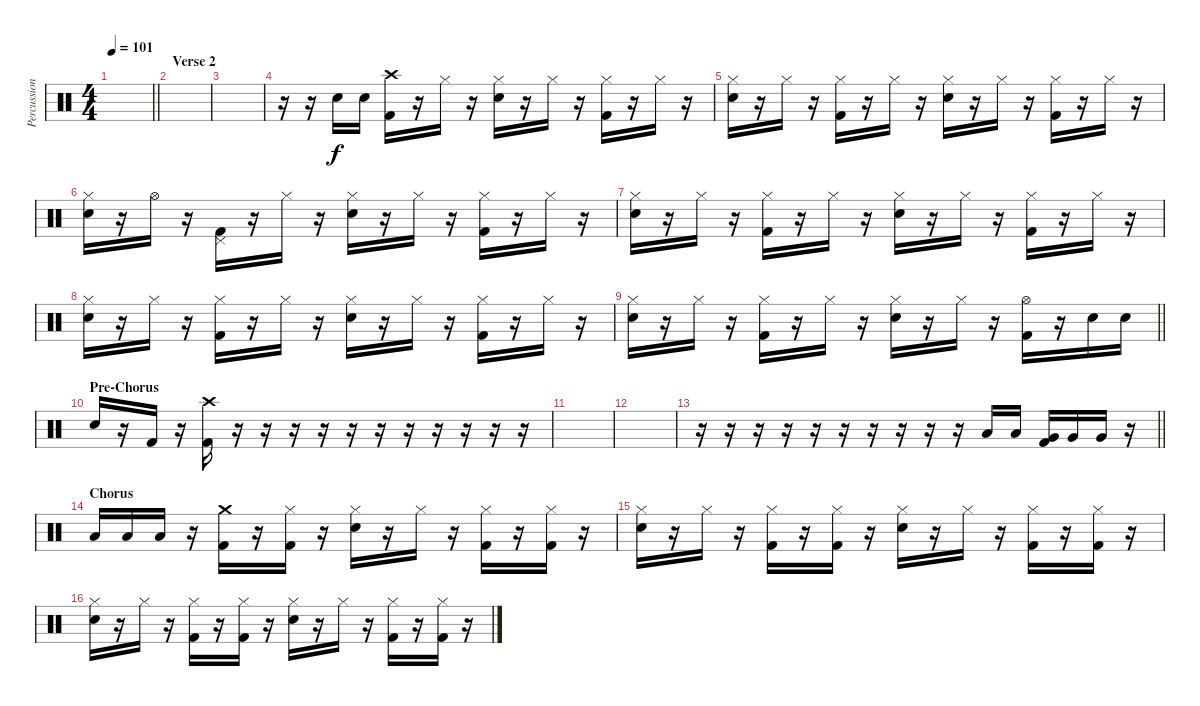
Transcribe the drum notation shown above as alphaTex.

\track ("Percussion (Chris)" "Percussion") {instrument percussion}
\staff {score}
\articulation defaults
\ts (4 4)
\tempo 101
\clef neutral
\barLineRight lightlight
\ks c
|
\section ("" "Verse 2")
|
|
r.16 r.16 "Snare (hit) 2".16 "Snare (hit) 2".16 ("Crash high (hit)" "Kick (hit) 2").16 r.16 "Hi-Hat (closed)".16 r.16 ("Hi-Hat (closed)" "Snare (hit) 2").16 r.16 "Hi-Hat (closed)".16 r.16 ("Hi-Hat (closed)" "Kick (hit) 2").16 r.16 "Hi-Hat (closed)".16 r.16 |
("Hi-Hat (closed)" "Snare (hit) 2").16 r.16 "Hi-Hat (closed)".16 r.16 ("Hi-Hat (closed)" "Kick (hit) 2").16 r.16 "Hi-Hat (closed)".16 r.16 ("Hi-Hat (closed)" "Snare (hit) 2").16 r.16 "Hi-Hat (closed)".16 r.16 ("Hi-Hat (closed)" "Kick (hit) 2").16 r.16 "Hi-Hat (closed)".16 r.16 |
("Hi-Hat (closed)" "Snare (hit) 2").16 r.16 "Hi-Hat (open)".16 r.16 ("Pedal Hi-Hat (hit)" "Kick (hit) 2").16 r.16 "Hi-Hat (closed)".16 r.16 ("Hi-Hat (closed)" "Snare (hit) 2").16 r.16 "Hi-Hat (closed)".16 r.16 ("Hi-Hat (closed)" "Kick (hit) 2").16 r.16 "Hi-Hat (closed)".16 r.16 |
("Hi-Hat (closed)" "Snare (hit) 2").16 r.16 "Hi-Hat (closed)".16 r.16 ("Hi-Hat (closed)" "Kick (hit) 2").16 r.16 "Hi-Hat (closed)".16 r.16 ("Hi-Hat (closed)" "Snare (hit) 2").16 r.16 "Hi-Hat (closed)".16 r.16 ("Hi-Hat (closed)" "Kick (hit) 2").16 r.16 "Hi-Hat (closed)".16 r.16 |
("Hi-Hat (closed)" "Snare (hit) 2").16 r.16 "Hi-Hat (closed)".16 r.16 ("Hi-Hat (closed)" "Kick (hit) 2").16 r.16 "Hi-Hat (closed)".16 r.16 ("Hi-Hat (closed)" "Snare (hit) 2").16 r.16 "Hi-Hat (closed)".16 r.16 ("Hi-Hat (closed)" "Kick (hit) 2").16 r.16 "Hi-Hat (closed)".16 r.16 |
\barLineRight lightlight
("Hi-Hat (closed)" "Snare (hit) 2").16 r.16 "Hi-Hat (closed)".16 r.16 ("Hi-Hat (closed)" "Kick (hit) 2").16 r.16 "Hi-Hat (closed)".16 r.16 ("Hi-Hat (closed)" "Snare (hit) 2").16 r.16 "Hi-Hat (closed)".16 r.16 ("Hi-Hat (open)" "Kick (hit) 2").16 r.16 "Snare (hit) 2".16 "Snare (hit) 2".16 |
\section ("" "Pre-Chorus")
"Snare (hit) 2".16 r.16 "Kick (hit) 2".16 r.16 ("Crash high (hit)" "Kick (hit) 2").16 r.16 r.16 r.16 r.16 r.16 r.16 r.16 r.16 r.16 r.16 r.16 |
|
|
\barLineRight lightlight
r.16 r.16 r.16 r.16 r.16 r.16 r.16 r.16 r.16 r.16 "Low Tom (hit)".16 "Low Tom (hit)".16 ("Very Low Tom (hit)" "Kick (hit) 2").16 "Very Low Tom (hit)".16 "Very Low Tom (hit)".16 r.16 |
\section ("" "Chorus")
"Low Floor Tom (hit)".16 "Low Floor Tom (hit)".16 "Low Floor Tom (hit)".16 r.16 ("Crash medium (hit)" "Kick (hit) 2").16 r.16 ("Hi-Hat (closed)" "Kick (hit) 2").16 r.16 ("Hi-Hat (closed)" "Snare (hit) 2").16 r.16 "Hi-Hat (closed)".16 r.16 ("Hi-Hat (closed)" "Kick (hit) 2").16 r.16 ("Hi-Hat (closed)" "Kick (hit) 2").16 r.16 |
("Hi-Hat (closed)" "Snare (hit) 2").16 r.16 "Hi-Hat (closed)".16 r.16 ("Hi-Hat (closed)" "Kick (hit) 2").16 r.16 ("Hi-Hat (closed)" "Kick (hit) 2").16 r.16 ("Hi-Hat (closed)" "Snare (hit) 2").16 r.16 "Hi-Hat (closed)".16 r.16 ("Hi-Hat (closed)" "Kick (hit) 2").16 r.16 ("Hi-Hat (closed)" "Kick (hit) 2").16 r.16 |
("Hi-Hat (closed)" "Snare (hit) 2").16 r.16 "Hi-Hat (closed)".16 r.16 ("Hi-Hat (closed)" "Kick (hit) 2").16 r.16 ("Hi-Hat (closed)" "Kick (hit) 2").16 r.16 ("Hi-Hat (closed)" "Snare (hit) 2").16 r.16 "Hi-Hat (closed)".16 r.16 ("Hi-Hat (closed)" "Kick (hit) 2").16 r.16 ("Hi-Hat (closed)" "Kick (hit) 2").16 r.16
